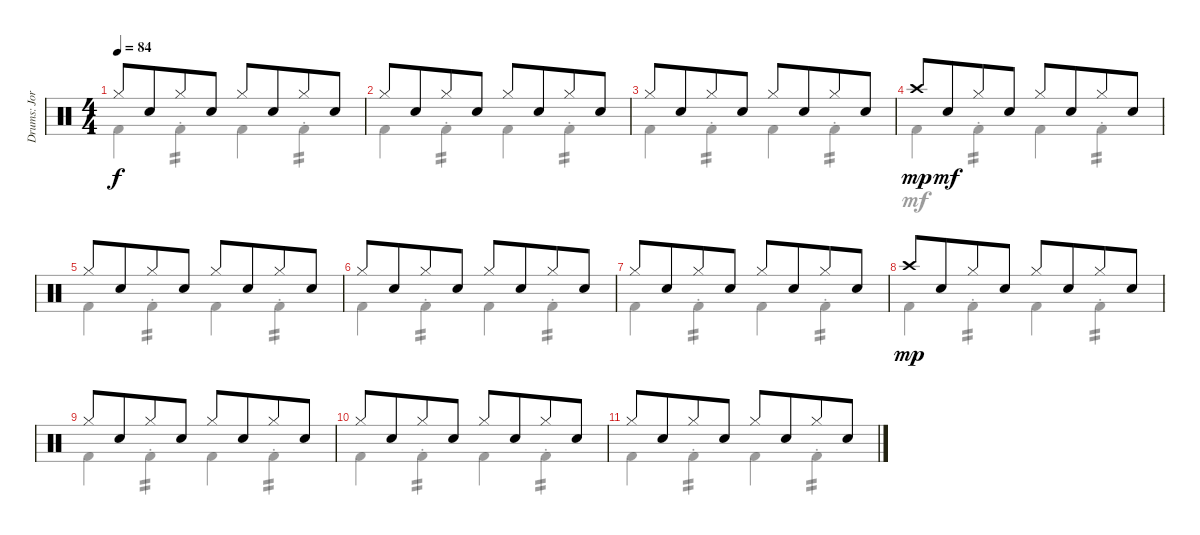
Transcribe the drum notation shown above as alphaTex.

\track ("Drums: Jorg" "Drums: Jor") {instrument percussion}
\staff {score}
\articulation defaults
\voice
\ts (4 4)
\tempo 84
\clef neutral
\ks c "Hi-Hat (closed)".8{dy f} "Snare (hit) 2".8{beam merge} "Hi-Hat (closed)".8 "Snare (hit) 2".8 "Hi-Hat (closed)".8 "Snare (hit) 2".8{beam merge} "Hi-Hat (closed)".8 "Snare (hit) 2".8
|
"Hi-Hat (closed)".8 "Snare (hit) 2".8{beam merge} "Hi-Hat (closed)".8 "Snare (hit) 2".8 "Hi-Hat (closed)".8 "Snare (hit) 2".8{beam merge} "Hi-Hat (closed)".8 "Snare (hit) 2".8 |
"Hi-Hat (closed)".8 "Snare (hit) 2".8{beam merge} "Hi-Hat (closed)".8 "Snare (hit) 2".8 "Hi-Hat (closed)".8 "Snare (hit) 2".8{beam merge} "Hi-Hat (closed)".8 "Snare (hit) 2".8 |
"Crash high (hit)".8{dy mp volume 8} "Snare (hit) 2".8{dy mf beam merge} "Hi-Hat (closed)".8 "Snare (hit) 2".8 "Hi-Hat (closed)".8 "Snare (hit) 2".8{beam merge} "Hi-Hat (closed)".8 "Snare (hit) 2".8 |
"Hi-Hat (closed)".8 "Snare (hit) 2".8{beam merge} "Hi-Hat (closed)".8 "Snare (hit) 2".8 "Hi-Hat (closed)".8 "Snare (hit) 2".8{beam merge} "Hi-Hat (closed)".8 "Snare (hit) 2".8 |
"Hi-Hat (closed)".8 "Snare (hit) 2".8{beam merge} "Hi-Hat (closed)".8 "Snare (hit) 2".8 "Hi-Hat (closed)".8 "Snare (hit) 2".8{beam merge} "Hi-Hat (closed)".8 "Snare (hit) 2".8 |
"Hi-Hat (closed)".8 "Snare (hit) 2".8{beam merge} "Hi-Hat (closed)".8 "Snare (hit) 2".8 "Hi-Hat (closed)".8 "Snare (hit) 2".8{beam merge} "Hi-Hat (closed)".8 "Snare (hit) 2".8 |
"Crash high (hit)".8{dy mp volume 0} "Snare (hit) 2".8{beam merge} "Hi-Hat (closed)".8 "Snare (hit) 2".8 "Hi-Hat (closed)".8 "Snare (hit) 2".8{beam merge} "Hi-Hat (closed)".8 "Snare (hit) 2".8 |
"Hi-Hat (closed)".8 "Snare (hit) 2".8{beam merge} "Hi-Hat (closed)".8 "Snare (hit) 2".8 "Hi-Hat (closed)".8 "Snare (hit) 2".8{beam merge} "Hi-Hat (closed)".8 "Snare (hit) 2".8 |
"Hi-Hat (closed)".8 "Snare (hit) 2".8{beam merge} "Hi-Hat (closed)".8 "Snare (hit) 2".8 "Hi-Hat (closed)".8 "Snare (hit) 2".8{beam merge} "Hi-Hat (closed)".8 "Snare (hit) 2".8 |
"Hi-Hat (closed)".8 "Snare (hit) 2".8{beam merge} "Hi-Hat (closed)".8 "Snare (hit) 2".8 "Hi-Hat (closed)".8 "Snare (hit) 2".8{beam merge} "Hi-Hat (closed)".8 "Snare (hit) 2".8
\voice
\clef neutral
\ottava regular
\simile none
\ks c "Kick (hit) 2".4{dy f} "Kick (hit) 2"{st}.4{tp 2} "Kick (hit) 2".4 "Kick (hit) 2"{st}.4{tp 2}
|
"Kick (hit) 2".4 "Kick (hit) 2"{st}.4{tp 2} "Kick (hit) 2".4 "Kick (hit) 2"{st}.4{tp 2} |
"Kick (hit) 2".4 "Kick (hit) 2"{st}.4{tp 2} "Kick (hit) 2".4 "Kick (hit) 2"{st}.4{tp 2} |
"Kick (hit) 2".4{dy mf} "Kick (hit) 2"{st}.4{tp 2} "Kick (hit) 2".4 "Kick (hit) 2"{st}.4{tp 2} |
"Kick (hit) 2".4 "Kick (hit) 2"{st}.4{tp 2} "Kick (hit) 2".4 "Kick (hit) 2"{st}.4{tp 2} |
"Kick (hit) 2".4 "Kick (hit) 2"{st}.4{tp 2} "Kick (hit) 2".4 "Kick (hit) 2"{st}.4{tp 2} |
"Kick (hit) 2".4 "Kick (hit) 2"{st}.4{tp 2} "Kick (hit) 2".4 "Kick (hit) 2"{st}.4{tp 2} |
"Kick (hit) 2".4{dy mp} "Kick (hit) 2"{st}.4{tp 2} "Kick (hit) 2".4 "Kick (hit) 2"{st}.4{tp 2} |
"Kick (hit) 2".4 "Kick (hit) 2"{st}.4{tp 2} "Kick (hit) 2".4 "Kick (hit) 2"{st}.4{tp 2} |
"Kick (hit) 2".4 "Kick (hit) 2"{st}.4{tp 2} "Kick (hit) 2".4 "Kick (hit) 2"{st}.4{tp 2} |
"Kick (hit) 2".4 "Kick (hit) 2"{st}.4{tp 2} "Kick (hit) 2".4 "Kick (hit) 2"{st}.4{tp 2}
